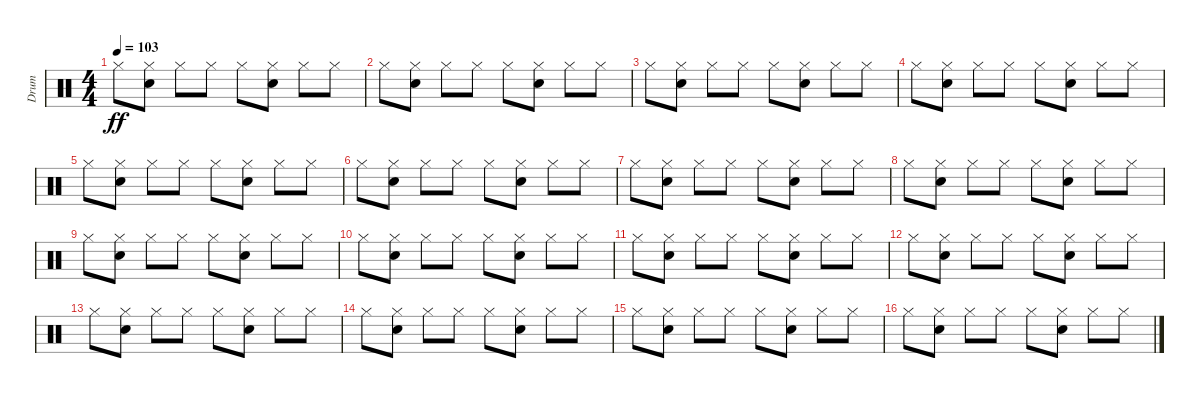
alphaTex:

\track ("Drum" "Drum") {instrument percussion}
\staff {score}
\articulation defaults
\ts (4 4)
\tempo 103
\clef neutral
\ks c "Hi-Hat (closed)".8{dy ff}
("Hi-Hat (closed)" "Electric Snare (hit)").8 "Hi-Hat (closed)".8 "Hi-Hat (closed)".8 "Hi-Hat (closed)".8 ("Hi-Hat (closed)" "Electric Snare (hit)").8 "Hi-Hat (closed)".8 "Hi-Hat (closed)".8 |
"Hi-Hat (closed)".8 ("Hi-Hat (closed)" "Electric Snare (hit)").8 "Hi-Hat (closed)".8 "Hi-Hat (closed)".8 "Hi-Hat (closed)".8 ("Hi-Hat (closed)" "Electric Snare (hit)").8 "Hi-Hat (closed)".8 "Hi-Hat (closed)".8 |
"Hi-Hat (closed)".8 ("Hi-Hat (closed)" "Electric Snare (hit)").8 "Hi-Hat (closed)".8 "Hi-Hat (closed)".8 "Hi-Hat (closed)".8 ("Hi-Hat (closed)" "Electric Snare (hit)").8 "Hi-Hat (closed)".8 "Hi-Hat (closed)".8 |
"Hi-Hat (closed)".8 ("Hi-Hat (closed)" "Electric Snare (hit)").8 "Hi-Hat (closed)".8 "Hi-Hat (closed)".8 "Hi-Hat (closed)".8 ("Hi-Hat (closed)" "Electric Snare (hit)").8 "Hi-Hat (closed)".8 "Hi-Hat (closed)".8 |
"Hi-Hat (closed)".8 ("Hi-Hat (closed)" "Electric Snare (hit)").8 "Hi-Hat (closed)".8 "Hi-Hat (closed)".8 "Hi-Hat (closed)".8 ("Hi-Hat (closed)" "Electric Snare (hit)").8 "Hi-Hat (closed)".8 "Hi-Hat (closed)".8 |
"Hi-Hat (closed)".8 ("Hi-Hat (closed)" "Electric Snare (hit)").8 "Hi-Hat (closed)".8 "Hi-Hat (closed)".8 "Hi-Hat (closed)".8 ("Hi-Hat (closed)" "Electric Snare (hit)").8 "Hi-Hat (closed)".8 "Hi-Hat (closed)".8 |
"Hi-Hat (closed)".8 ("Hi-Hat (closed)" "Electric Snare (hit)").8 "Hi-Hat (closed)".8 "Hi-Hat (closed)".8 "Hi-Hat (closed)".8 ("Hi-Hat (closed)" "Electric Snare (hit)").8 "Hi-Hat (closed)".8 "Hi-Hat (closed)".8 |
"Hi-Hat (closed)".8 ("Hi-Hat (closed)" "Electric Snare (hit)").8 "Hi-Hat (closed)".8 "Hi-Hat (closed)".8 "Hi-Hat (closed)".8 ("Hi-Hat (closed)" "Electric Snare (hit)").8 "Hi-Hat (closed)".8 "Hi-Hat (closed)".8 |
"Hi-Hat (closed)".8 ("Hi-Hat (closed)" "Electric Snare (hit)").8 "Hi-Hat (closed)".8 "Hi-Hat (closed)".8 "Hi-Hat (closed)".8 ("Hi-Hat (closed)" "Electric Snare (hit)").8 "Hi-Hat (closed)".8 "Hi-Hat (closed)".8 |
"Hi-Hat (closed)".8 ("Hi-Hat (closed)" "Electric Snare (hit)").8 "Hi-Hat (closed)".8 "Hi-Hat (closed)".8 "Hi-Hat (closed)".8 ("Hi-Hat (closed)" "Electric Snare (hit)").8 "Hi-Hat (closed)".8 "Hi-Hat (closed)".8 |
"Hi-Hat (closed)".8 ("Hi-Hat (closed)" "Electric Snare (hit)").8 "Hi-Hat (closed)".8 "Hi-Hat (closed)".8 "Hi-Hat (closed)".8 ("Hi-Hat (closed)" "Electric Snare (hit)").8 "Hi-Hat (closed)".8 "Hi-Hat (closed)".8 |
"Hi-Hat (closed)".8 ("Hi-Hat (closed)" "Electric Snare (hit)").8 "Hi-Hat (closed)".8 "Hi-Hat (closed)".8 "Hi-Hat (closed)".8 ("Hi-Hat (closed)" "Electric Snare (hit)").8 "Hi-Hat (closed)".8 "Hi-Hat (closed)".8 |
"Hi-Hat (closed)".8 ("Hi-Hat (closed)" "Electric Snare (hit)").8 "Hi-Hat (closed)".8 "Hi-Hat (closed)".8 "Hi-Hat (closed)".8 ("Hi-Hat (closed)" "Electric Snare (hit)").8 "Hi-Hat (closed)".8 "Hi-Hat (closed)".8 |
"Hi-Hat (closed)".8 ("Hi-Hat (closed)" "Electric Snare (hit)").8 "Hi-Hat (closed)".8 "Hi-Hat (closed)".8 "Hi-Hat (closed)".8 ("Hi-Hat (closed)" "Electric Snare (hit)").8 "Hi-Hat (closed)".8 "Hi-Hat (closed)".8 |
"Hi-Hat (closed)".8 ("Hi-Hat (closed)" "Electric Snare (hit)").8 "Hi-Hat (closed)".8 "Hi-Hat (closed)".8 "Hi-Hat (closed)".8 ("Hi-Hat (closed)" "Electric Snare (hit)").8 "Hi-Hat (closed)".8 "Hi-Hat (closed)".8 |
"Hi-Hat (closed)".8 ("Hi-Hat (closed)" "Electric Snare (hit)").8 "Hi-Hat (closed)".8 "Hi-Hat (closed)".8 "Hi-Hat (closed)".8 ("Hi-Hat (closed)" "Electric Snare (hit)").8 "Hi-Hat (closed)".8 "Hi-Hat (closed)".8
